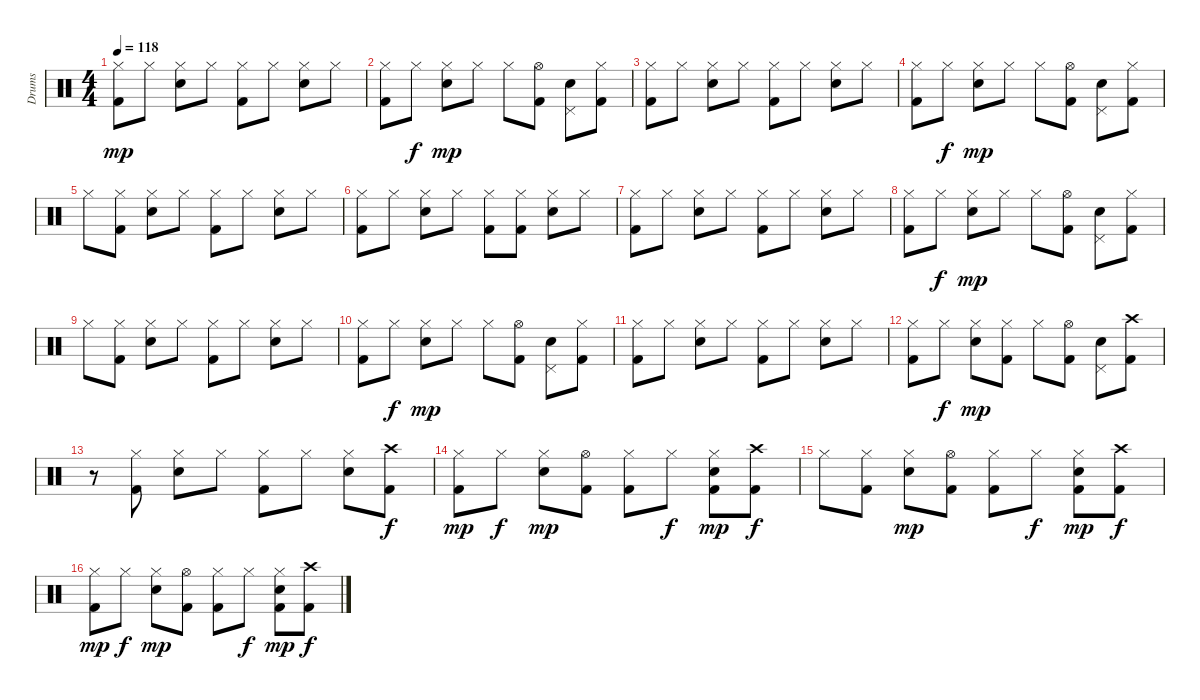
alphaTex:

\track ("Drums" "Drums") {instrument percussion}
\staff {score}
\articulation defaults
\ts (4 4)
\tempo 118
\clef neutral
\ks c
("Hi-Hat (closed)" "Kick (hit) 2").8{dy mp} "Hi-Hat (closed)".8 ("Hi-Hat (closed)" "Snare (hit) 2").8 "Hi-Hat (closed)".8 ("Hi-Hat (closed)" "Kick (hit) 2").8 "Hi-Hat (closed)".8 ("Hi-Hat (closed)" "Snare (hit) 2").8 "Hi-Hat (closed)".8 |
("Hi-Hat (closed)" "Kick (hit) 2").8 "Hi-Hat (closed)".8{dy f} ("Hi-Hat (closed)" "Snare (hit) 2").8{dy mp} "Hi-Hat (closed)".8 "Hi-Hat (closed)".8 ("Hi-Hat (open)" "Kick (hit) 2").8 ("Pedal Hi-Hat (hit)" "Snare (hit) 2").8 ("Hi-Hat (closed)" "Kick (hit) 2").8 |
("Hi-Hat (closed)" "Kick (hit) 2").8 "Hi-Hat (closed)".8 ("Hi-Hat (closed)" "Snare (hit) 2").8 "Hi-Hat (closed)".8 ("Hi-Hat (closed)" "Kick (hit) 2").8 "Hi-Hat (closed)".8 ("Hi-Hat (closed)" "Snare (hit) 2").8 "Hi-Hat (closed)".8 |
("Hi-Hat (closed)" "Kick (hit) 2").8 "Hi-Hat (closed)".8{dy f} ("Hi-Hat (closed)" "Snare (hit) 2").8{dy mp} "Hi-Hat (closed)".8 "Hi-Hat (closed)".8 ("Hi-Hat (open)" "Kick (hit) 2").8 ("Pedal Hi-Hat (hit)" "Snare (hit) 2").8 ("Hi-Hat (closed)" "Kick (hit) 2").8 |
"Hi-Hat (closed)".8 ("Hi-Hat (closed)" "Kick (hit) 2").8 ("Hi-Hat (closed)" "Snare (hit) 2").8 "Hi-Hat (closed)".8 ("Hi-Hat (closed)" "Kick (hit) 2").8 "Hi-Hat (closed)".8 ("Hi-Hat (closed)" "Snare (hit) 2").8 "Hi-Hat (closed)".8 |
("Hi-Hat (closed)" "Kick (hit) 2").8 "Hi-Hat (closed)".8 ("Hi-Hat (closed)" "Snare (hit) 2").8 "Hi-Hat (closed)".8 ("Hi-Hat (closed)" "Kick (hit) 2").8 ("Hi-Hat (closed)" "Kick (hit) 2").8 ("Hi-Hat (closed)" "Snare (hit) 2").8 "Hi-Hat (closed)".8 |
("Hi-Hat (closed)" "Kick (hit) 2").8 "Hi-Hat (closed)".8 ("Hi-Hat (closed)" "Snare (hit) 2").8 "Hi-Hat (closed)".8 ("Hi-Hat (closed)" "Kick (hit) 2").8 "Hi-Hat (closed)".8 ("Hi-Hat (closed)" "Snare (hit) 2").8 "Hi-Hat (closed)".8 |
("Hi-Hat (closed)" "Kick (hit) 2").8 "Hi-Hat (closed)".8{dy f} ("Hi-Hat (closed)" "Snare (hit) 2").8{dy mp} "Hi-Hat (closed)".8 "Hi-Hat (closed)".8 ("Hi-Hat (open)" "Kick (hit) 2").8 ("Pedal Hi-Hat (hit)" "Snare (hit) 2").8 ("Hi-Hat (closed)" "Kick (hit) 2").8 |
"Hi-Hat (closed)".8 ("Hi-Hat (closed)" "Kick (hit) 2").8 ("Hi-Hat (closed)" "Snare (hit) 2").8 "Hi-Hat (closed)".8 ("Hi-Hat (closed)" "Kick (hit) 2").8 "Hi-Hat (closed)".8 ("Hi-Hat (closed)" "Snare (hit) 2").8 "Hi-Hat (closed)".8 |
("Hi-Hat (closed)" "Kick (hit) 2").8 "Hi-Hat (closed)".8{dy f} ("Hi-Hat (closed)" "Snare (hit) 2").8{dy mp} "Hi-Hat (closed)".8 "Hi-Hat (closed)".8 ("Hi-Hat (open)" "Kick (hit) 2").8 ("Pedal Hi-Hat (hit)" "Snare (hit) 2").8 ("Hi-Hat (closed)" "Kick (hit) 2").8 |
("Hi-Hat (closed)" "Kick (hit) 2").8 "Hi-Hat (closed)".8 ("Hi-Hat (closed)" "Snare (hit) 2").8 "Hi-Hat (closed)".8 ("Hi-Hat (closed)" "Kick (hit) 2").8 "Hi-Hat (closed)".8 ("Hi-Hat (closed)" "Snare (hit) 2").8 "Hi-Hat (closed)".8 |
("Hi-Hat (closed)" "Kick (hit) 2").8 "Hi-Hat (closed)".8{dy f} ("Hi-Hat (closed)" "Snare (hit) 2").8{dy mp} ("Hi-Hat (closed)" "Kick (hit) 2").8 "Hi-Hat (closed)".8 ("Hi-Hat (open)" "Kick (hit) 2").8 ("Pedal Hi-Hat (hit)" "Snare (hit) 2").8 ("Crash high (hit)" "Kick (hit) 2").8 |
r.8 ("Hi-Hat (closed)" "Kick (hit) 2").8 ("Hi-Hat (closed)" "Snare (hit) 2").8 "Hi-Hat (closed)".8 ("Hi-Hat (closed)" "Kick (hit) 2").8 "Hi-Hat (closed)".8 ("Hi-Hat (closed)" "Snare (hit) 2").8 ("Crash high (hit)" "Kick (hit) 2").8{dy f} |
("Hi-Hat (closed)" "Kick (hit) 2").8{dy mp} "Hi-Hat (closed)".8{dy f} ("Hi-Hat (closed)" "Snare (hit) 2").8{dy mp} ("Hi-Hat (open)" "Kick (hit) 2").8 ("Hi-Hat (closed)" "Kick (hit) 2").8 "Hi-Hat (closed)".8{dy f} ("Hi-Hat (closed)" "Snare (hit) 2" "Kick (hit) 2").8{dy mp} ("Crash high (hit)" "Kick (hit) 2").8{dy f} |
"Hi-Hat (closed)".8 ("Hi-Hat (closed)" "Kick (hit) 2").8 ("Hi-Hat (closed)" "Snare (hit) 2").8{dy mp} ("Hi-Hat (open)" "Kick (hit) 2").8 ("Hi-Hat (closed)" "Kick (hit) 2").8 "Hi-Hat (closed)".8{dy f} ("Hi-Hat (closed)" "Snare (hit) 2" "Kick (hit) 2").8{dy mp} ("Crash high (hit)" "Kick (hit) 2").8{dy f} |
("Hi-Hat (closed)" "Kick (hit) 2").8{dy mp} "Hi-Hat (closed)".8{dy f} ("Hi-Hat (closed)" "Snare (hit) 2").8{dy mp} ("Hi-Hat (open)" "Kick (hit) 2").8 ("Hi-Hat (closed)" "Kick (hit) 2").8 "Hi-Hat (closed)".8{dy f} ("Hi-Hat (closed)" "Snare (hit) 2" "Kick (hit) 2").8{dy mp} ("Crash high (hit)" "Kick (hit) 2").8{dy f}
